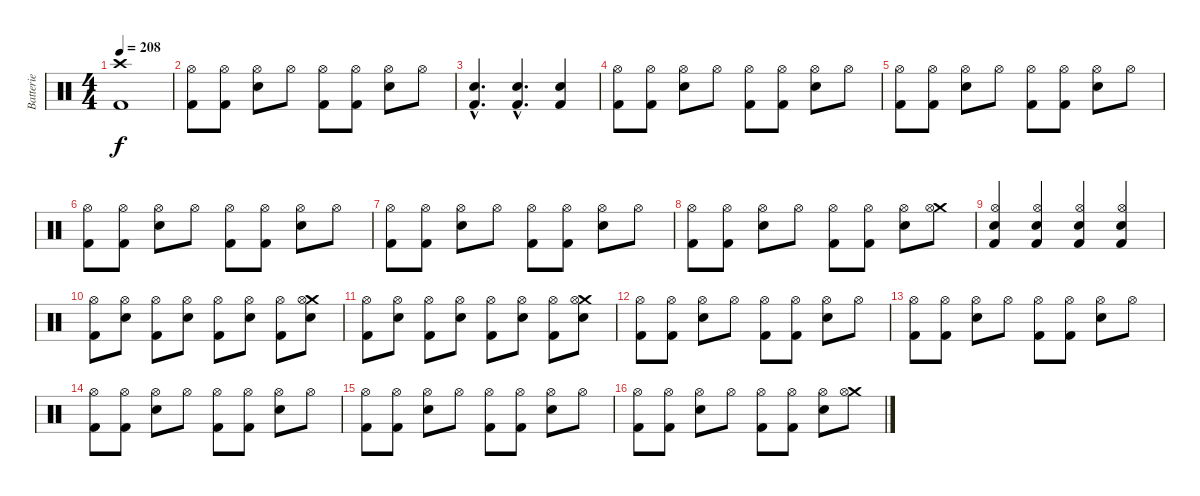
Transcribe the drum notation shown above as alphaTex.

\track ("Batterie" "Batterie") {instrument percussion}
\staff {score}
\articulation defaults
\ts (4 4)
\tempo 208
\clef neutral
\ks c
("Crash high (hit)" "Kick (hit) 2").1{dy f} |
("Hi-Hat (open)" "Kick (hit) 2").8 ("Hi-Hat (open)" "Kick (hit) 2").8 ("Hi-Hat (open)" "Snare (hit) 2").8 "Hi-Hat (open)".8 ("Hi-Hat (open)" "Kick (hit) 2").8 ("Hi-Hat (open)" "Kick (hit) 2").8 ("Hi-Hat (open)" "Snare (hit) 2").8 "Hi-Hat (open)".8 |
("Snare (hit) 2"{hac} "Kick (hit) 2"{hac}).4{d} ("Snare (hit) 2"{hac} "Kick (hit) 2"{hac}).4{d} ("Snare (hit) 2" "Kick (hit) 2").4 |
("Hi-Hat (open)" "Kick (hit) 2").8 ("Hi-Hat (open)" "Kick (hit) 2").8 ("Hi-Hat (open)" "Snare (hit) 2").8 "Hi-Hat (open)".8 ("Hi-Hat (open)" "Kick (hit) 2").8 ("Hi-Hat (open)" "Kick (hit) 2").8 ("Hi-Hat (open)" "Snare (hit) 2").8 "Hi-Hat (open)".8 |
("Hi-Hat (open)" "Kick (hit) 2").8 ("Hi-Hat (open)" "Kick (hit) 2").8 ("Hi-Hat (open)" "Snare (hit) 2").8 "Hi-Hat (open)".8 ("Hi-Hat (open)" "Kick (hit) 2").8 ("Hi-Hat (open)" "Kick (hit) 2").8 ("Hi-Hat (open)" "Snare (hit) 2").8 "Hi-Hat (open)".8 |
("Hi-Hat (open)" "Kick (hit) 2").8 ("Hi-Hat (open)" "Kick (hit) 2").8 ("Hi-Hat (open)" "Snare (hit) 2").8 "Hi-Hat (open)".8 ("Hi-Hat (open)" "Kick (hit) 2").8 ("Hi-Hat (open)" "Kick (hit) 2").8 ("Hi-Hat (open)" "Snare (hit) 2").8 "Hi-Hat (open)".8 |
("Hi-Hat (open)" "Kick (hit) 2").8 ("Hi-Hat (open)" "Kick (hit) 2").8 ("Hi-Hat (open)" "Snare (hit) 2").8 "Hi-Hat (open)".8 ("Hi-Hat (open)" "Kick (hit) 2").8 ("Hi-Hat (open)" "Kick (hit) 2").8 ("Hi-Hat (open)" "Snare (hit) 2").8 "Hi-Hat (open)".8 |
("Hi-Hat (open)" "Kick (hit) 2").8 ("Hi-Hat (open)" "Kick (hit) 2").8 ("Hi-Hat (open)" "Snare (hit) 2").8 "Hi-Hat (open)".8 ("Hi-Hat (open)" "Kick (hit) 2").8 ("Hi-Hat (open)" "Kick (hit) 2").8 ("Hi-Hat (open)" "Snare (hit) 2").8 ("Crash medium (hit)" "Hi-Hat (open)").8 |
("Hi-Hat (open)" "Snare (hit) 2" "Kick (hit) 2").4 ("Hi-Hat (open)" "Snare (hit) 2" "Kick (hit) 2").4 ("Hi-Hat (open)" "Snare (hit) 2" "Kick (hit) 2").4 ("Hi-Hat (open)" "Snare (hit) 2" "Kick (hit) 2").4 |
("Hi-Hat (open)" "Kick (hit) 2").8 ("Hi-Hat (open)" "Snare (hit) 2").8 ("Hi-Hat (open)" "Kick (hit) 2").8 ("Hi-Hat (open)" "Snare (hit) 2").8 ("Hi-Hat (open)" "Kick (hit) 2").8 ("Hi-Hat (open)" "Snare (hit) 2").8 ("Hi-Hat (open)" "Kick (hit) 2").8 ("Crash medium (hit)" "Hi-Hat (open)" "Snare (hit) 2").8 |
("Hi-Hat (open)" "Kick (hit) 2").8 ("Hi-Hat (open)" "Snare (hit) 2").8 ("Hi-Hat (open)" "Kick (hit) 2").8 ("Hi-Hat (open)" "Snare (hit) 2").8 ("Hi-Hat (open)" "Kick (hit) 2").8 ("Hi-Hat (open)" "Snare (hit) 2").8 ("Hi-Hat (open)" "Kick (hit) 2").8 ("Crash medium (hit)" "Hi-Hat (open)" "Snare (hit) 2").8 |
("Hi-Hat (open)" "Kick (hit) 2").8 ("Hi-Hat (open)" "Kick (hit) 2").8 ("Hi-Hat (open)" "Snare (hit) 2").8 "Hi-Hat (open)".8 ("Hi-Hat (open)" "Kick (hit) 2").8 ("Hi-Hat (open)" "Kick (hit) 2").8 ("Hi-Hat (open)" "Snare (hit) 2").8 "Hi-Hat (open)".8 |
("Hi-Hat (open)" "Kick (hit) 2").8 ("Hi-Hat (open)" "Kick (hit) 2").8 ("Hi-Hat (open)" "Snare (hit) 2").8 "Hi-Hat (open)".8 ("Hi-Hat (open)" "Kick (hit) 2").8 ("Hi-Hat (open)" "Kick (hit) 2").8 ("Hi-Hat (open)" "Snare (hit) 2").8 "Hi-Hat (open)".8 |
("Hi-Hat (open)" "Kick (hit) 2").8 ("Hi-Hat (open)" "Kick (hit) 2").8 ("Hi-Hat (open)" "Snare (hit) 2").8 "Hi-Hat (open)".8 ("Hi-Hat (open)" "Kick (hit) 2").8 ("Hi-Hat (open)" "Kick (hit) 2").8 ("Hi-Hat (open)" "Snare (hit) 2").8 "Hi-Hat (open)".8 |
("Hi-Hat (open)" "Kick (hit) 2").8 ("Hi-Hat (open)" "Kick (hit) 2").8 ("Hi-Hat (open)" "Snare (hit) 2").8 "Hi-Hat (open)".8 ("Hi-Hat (open)" "Kick (hit) 2").8 ("Hi-Hat (open)" "Kick (hit) 2").8 ("Hi-Hat (open)" "Snare (hit) 2").8 "Hi-Hat (open)".8 |
("Hi-Hat (open)" "Kick (hit) 2").8 ("Hi-Hat (open)" "Kick (hit) 2").8 ("Hi-Hat (open)" "Snare (hit) 2").8 "Hi-Hat (open)".8 ("Hi-Hat (open)" "Kick (hit) 2").8 ("Hi-Hat (open)" "Kick (hit) 2").8 ("Hi-Hat (open)" "Snare (hit) 2").8 ("Crash medium (hit)" "Hi-Hat (open)").8
